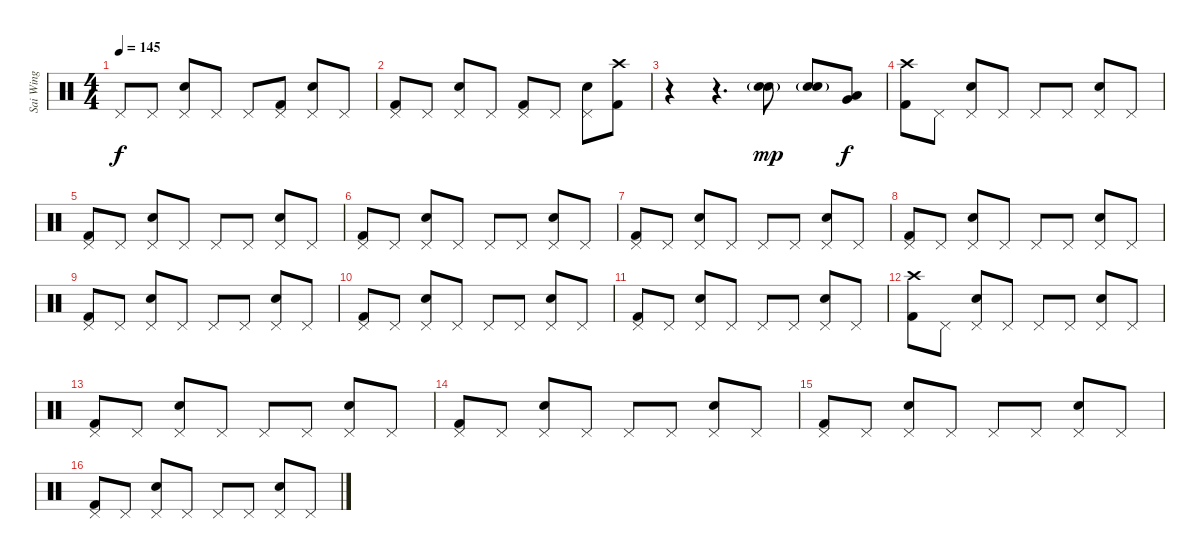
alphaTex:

\track ("Sai Wing" "Sai Wing") {instrument percussion}
\staff {score}
\articulation defaults
\ts (4 4)
\tempo 145
\clef neutral
\ks c "Pedal Hi-Hat (hit)".8{dy f} "Pedal Hi-Hat (hit)".8
("Pedal Hi-Hat (hit)" "Snare (hit) 2").8 "Pedal Hi-Hat (hit)".8 "Pedal Hi-Hat (hit)".8 ("Pedal Hi-Hat (hit)" "Kick (hit) 2").8 ("Pedal Hi-Hat (hit)" "Snare (hit) 2").8 "Pedal Hi-Hat (hit)".8 |
("Pedal Hi-Hat (hit)" "Kick (hit) 2").8 "Pedal Hi-Hat (hit)".8 ("Pedal Hi-Hat (hit)" "Snare (hit) 2").8 "Pedal Hi-Hat (hit)".8 ("Pedal Hi-Hat (hit)" "Kick (hit) 2").8 "Pedal Hi-Hat (hit)".8 ("Pedal Hi-Hat (hit)" "Snare (hit) 2").8 ("Crash high (hit)" "Kick (hit) 2").8 |
r.4 r.4{d} ("Snare (hit) 2"{g} "Snare (hit) 2").8{dy mp} ("Snare (hit) 2"{g} "Snare (hit) 2").8 ("Very Low Tom (hit)" "Low Tom (hit)").8{dy f} |
("Crash high (hit)" "Kick (hit) 2").8 "Pedal Hi-Hat (hit)".8 ("Pedal Hi-Hat (hit)" "Snare (hit) 2").8 "Pedal Hi-Hat (hit)".8 "Pedal Hi-Hat (hit)".8 "Pedal Hi-Hat (hit)".8 ("Pedal Hi-Hat (hit)" "Snare (hit) 2").8 "Pedal Hi-Hat (hit)".8 |
("Pedal Hi-Hat (hit)" "Kick (hit) 2").8 "Pedal Hi-Hat (hit)".8 ("Pedal Hi-Hat (hit)" "Snare (hit) 2").8 "Pedal Hi-Hat (hit)".8 "Pedal Hi-Hat (hit)".8 "Pedal Hi-Hat (hit)".8 ("Pedal Hi-Hat (hit)" "Snare (hit) 2").8 "Pedal Hi-Hat (hit)".8 |
("Pedal Hi-Hat (hit)" "Kick (hit) 2").8 "Pedal Hi-Hat (hit)".8 ("Pedal Hi-Hat (hit)" "Snare (hit) 2").8 "Pedal Hi-Hat (hit)".8 "Pedal Hi-Hat (hit)".8 "Pedal Hi-Hat (hit)".8 ("Pedal Hi-Hat (hit)" "Snare (hit) 2").8 "Pedal Hi-Hat (hit)".8 |
("Pedal Hi-Hat (hit)" "Kick (hit) 2").8 "Pedal Hi-Hat (hit)".8 ("Pedal Hi-Hat (hit)" "Snare (hit) 2").8 "Pedal Hi-Hat (hit)".8 "Pedal Hi-Hat (hit)".8 "Pedal Hi-Hat (hit)".8 ("Pedal Hi-Hat (hit)" "Snare (hit) 2").8 "Pedal Hi-Hat (hit)".8 |
("Pedal Hi-Hat (hit)" "Kick (hit) 2").8 "Pedal Hi-Hat (hit)".8 ("Pedal Hi-Hat (hit)" "Snare (hit) 2").8 "Pedal Hi-Hat (hit)".8 "Pedal Hi-Hat (hit)".8 "Pedal Hi-Hat (hit)".8 ("Pedal Hi-Hat (hit)" "Snare (hit) 2").8 "Pedal Hi-Hat (hit)".8 |
("Pedal Hi-Hat (hit)" "Kick (hit) 2").8 "Pedal Hi-Hat (hit)".8 ("Pedal Hi-Hat (hit)" "Snare (hit) 2").8 "Pedal Hi-Hat (hit)".8 "Pedal Hi-Hat (hit)".8 "Pedal Hi-Hat (hit)".8 ("Pedal Hi-Hat (hit)" "Snare (hit) 2").8 "Pedal Hi-Hat (hit)".8 |
("Pedal Hi-Hat (hit)" "Kick (hit) 2").8 "Pedal Hi-Hat (hit)".8 ("Pedal Hi-Hat (hit)" "Snare (hit) 2").8 "Pedal Hi-Hat (hit)".8 "Pedal Hi-Hat (hit)".8 "Pedal Hi-Hat (hit)".8 ("Pedal Hi-Hat (hit)" "Snare (hit) 2").8 "Pedal Hi-Hat (hit)".8 |
("Pedal Hi-Hat (hit)" "Kick (hit) 2").8 "Pedal Hi-Hat (hit)".8 ("Pedal Hi-Hat (hit)" "Snare (hit) 2").8 "Pedal Hi-Hat (hit)".8 "Pedal Hi-Hat (hit)".8 "Pedal Hi-Hat (hit)".8 ("Pedal Hi-Hat (hit)" "Snare (hit) 2").8 "Pedal Hi-Hat (hit)".8 |
("Crash high (hit)" "Kick (hit) 2").8 "Pedal Hi-Hat (hit)".8 ("Pedal Hi-Hat (hit)" "Snare (hit) 2").8 "Pedal Hi-Hat (hit)".8 "Pedal Hi-Hat (hit)".8 "Pedal Hi-Hat (hit)".8 ("Pedal Hi-Hat (hit)" "Snare (hit) 2").8 "Pedal Hi-Hat (hit)".8 |
("Pedal Hi-Hat (hit)" "Kick (hit) 2").8 "Pedal Hi-Hat (hit)".8 ("Pedal Hi-Hat (hit)" "Snare (hit) 2").8 "Pedal Hi-Hat (hit)".8 "Pedal Hi-Hat (hit)".8 "Pedal Hi-Hat (hit)".8 ("Pedal Hi-Hat (hit)" "Snare (hit) 2").8 "Pedal Hi-Hat (hit)".8 |
("Pedal Hi-Hat (hit)" "Kick (hit) 2").8 "Pedal Hi-Hat (hit)".8 ("Pedal Hi-Hat (hit)" "Snare (hit) 2").8 "Pedal Hi-Hat (hit)".8 "Pedal Hi-Hat (hit)".8 "Pedal Hi-Hat (hit)".8 ("Pedal Hi-Hat (hit)" "Snare (hit) 2").8 "Pedal Hi-Hat (hit)".8 |
("Pedal Hi-Hat (hit)" "Kick (hit) 2").8 "Pedal Hi-Hat (hit)".8 ("Pedal Hi-Hat (hit)" "Snare (hit) 2").8 "Pedal Hi-Hat (hit)".8 "Pedal Hi-Hat (hit)".8 "Pedal Hi-Hat (hit)".8 ("Pedal Hi-Hat (hit)" "Snare (hit) 2").8 "Pedal Hi-Hat (hit)".8 |
("Pedal Hi-Hat (hit)" "Kick (hit) 2").8 "Pedal Hi-Hat (hit)".8 ("Pedal Hi-Hat (hit)" "Snare (hit) 2").8 "Pedal Hi-Hat (hit)".8 "Pedal Hi-Hat (hit)".8 "Pedal Hi-Hat (hit)".8 ("Pedal Hi-Hat (hit)" "Snare (hit) 2").8 "Pedal Hi-Hat (hit)".8
